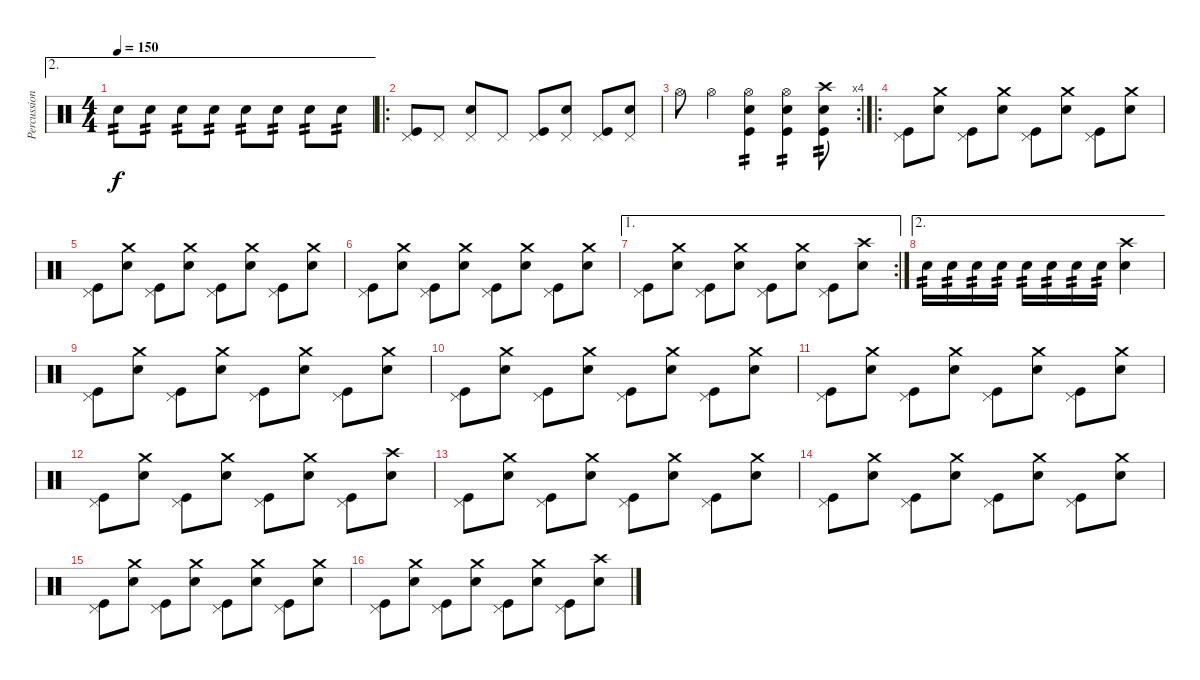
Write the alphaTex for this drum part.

\track ("Percussion" "Percussion") {instrument percussion}
\staff {score}
\articulation defaults
\ae 2
\ts (4 4)
\tempo 150
\clef neutral
\ks c "Snare (hit) 2".8{tp 2 dy f} "Snare (hit) 2".8{tp 2} "Snare (hit) 2".8{tp 2} "Snare (hit) 2".8{tp 2} "Snare (hit) 2".8{tp 2} "Snare (hit) 2".8{tp 2} "Snare (hit) 2".8{tp 2} "Snare (hit) 2".8{tp 2}
|
\ro
("Pedal Hi-Hat (hit)" "Kick (hit)").8 "Pedal Hi-Hat (hit)".8 ("Pedal Hi-Hat (hit)" "Snare (hit) 2").8 "Pedal Hi-Hat (hit)".8 ("Pedal Hi-Hat (hit)" "Kick (hit)").8 ("Pedal Hi-Hat (hit)" "Snare (hit) 2").8 ("Pedal Hi-Hat (hit)" "Kick (hit)").8 ("Pedal Hi-Hat (hit)" "Snare (hit) 2").8 |
\rc 4 "Hi-Hat (open)".8 "Hi-Hat (open)".4
("Hi-Hat (open)" "Snare (hit) 2" "Kick (hit)").4{tp 2} ("Hi-Hat (open)" "Snare (hit) 2" "Kick (hit)").4{tp 2} ("Crash high (hit)" "Snare (hit) 2" "Kick (hit)").8{tp 2} |
\ro
("Pedal Hi-Hat (hit)" "Kick (hit)").8 ("Crash medium (hit)" "Snare (hit) 2").8 ("Pedal Hi-Hat (hit)" "Kick (hit)").8 ("Crash medium (hit)" "Snare (hit) 2").8 ("Pedal Hi-Hat (hit)" "Kick (hit)").8 ("Crash medium (hit)" "Snare (hit) 2").8 ("Pedal Hi-Hat (hit)" "Kick (hit)").8 ("Crash medium (hit)" "Snare (hit) 2").8 |
("Pedal Hi-Hat (hit)" "Kick (hit)").8 ("Crash medium (hit)" "Snare (hit) 2").8 ("Pedal Hi-Hat (hit)" "Kick (hit)").8 ("Crash medium (hit)" "Snare (hit) 2").8 ("Pedal Hi-Hat (hit)" "Kick (hit)").8 ("Crash medium (hit)" "Snare (hit) 2").8 ("Pedal Hi-Hat (hit)" "Kick (hit)").8 ("Crash medium (hit)" "Snare (hit) 2").8 |
("Pedal Hi-Hat (hit)" "Kick (hit)").8 ("Crash medium (hit)" "Snare (hit) 2").8 ("Pedal Hi-Hat (hit)" "Kick (hit)").8 ("Crash medium (hit)" "Snare (hit) 2").8 ("Pedal Hi-Hat (hit)" "Kick (hit)").8 ("Crash medium (hit)" "Snare (hit) 2").8 ("Pedal Hi-Hat (hit)" "Kick (hit)").8 ("Crash medium (hit)" "Snare (hit) 2").8 |
\ae 1
\rc 2
("Pedal Hi-Hat (hit)" "Kick (hit)").8 ("Crash medium (hit)" "Snare (hit) 2").8 ("Pedal Hi-Hat (hit)" "Kick (hit)").8 ("Crash medium (hit)" "Snare (hit) 2").8 ("Pedal Hi-Hat (hit)" "Kick (hit)").8 ("Crash medium (hit)" "Snare (hit) 2").8 ("Pedal Hi-Hat (hit)" "Kick (hit)").8 ("Crash high (hit)" "Snare (hit) 2").8 |
\ae 2 "Snare (hit) 2".16{tp 2} "Snare (hit) 2".16{tp 2} "Snare (hit) 2".16{tp 2} "Snare (hit) 2".16{tp 2} "Snare (hit) 2".16{tp 2} "Snare (hit) 2".16{tp 2} "Snare (hit) 2".16{tp 2} "Snare (hit) 2".16{tp 2}
("Crash high (hit)" "Snare (hit) 2").4 |
("Pedal Hi-Hat (hit)" "Kick (hit)").8 ("Crash medium (hit)" "Snare (hit) 2").8 ("Pedal Hi-Hat (hit)" "Kick (hit)").8 ("Crash medium (hit)" "Snare (hit) 2").8 ("Pedal Hi-Hat (hit)" "Kick (hit)").8 ("Crash medium (hit)" "Snare (hit) 2").8 ("Pedal Hi-Hat (hit)" "Kick (hit)").8 ("Crash medium (hit)" "Snare (hit) 2").8 |
("Pedal Hi-Hat (hit)" "Kick (hit)").8 ("Crash medium (hit)" "Snare (hit) 2").8 ("Pedal Hi-Hat (hit)" "Kick (hit)").8 ("Crash medium (hit)" "Snare (hit) 2").8 ("Pedal Hi-Hat (hit)" "Kick (hit)").8 ("Crash medium (hit)" "Snare (hit) 2").8 ("Pedal Hi-Hat (hit)" "Kick (hit)").8 ("Crash medium (hit)" "Snare (hit) 2").8 |
("Pedal Hi-Hat (hit)" "Kick (hit)").8 ("Crash medium (hit)" "Snare (hit) 2").8 ("Pedal Hi-Hat (hit)" "Kick (hit)").8 ("Crash medium (hit)" "Snare (hit) 2").8 ("Pedal Hi-Hat (hit)" "Kick (hit)").8 ("Crash medium (hit)" "Snare (hit) 2").8 ("Pedal Hi-Hat (hit)" "Kick (hit)").8 ("Crash medium (hit)" "Snare (hit) 2").8 |
("Pedal Hi-Hat (hit)" "Kick (hit)").8 ("Crash medium (hit)" "Snare (hit) 2").8 ("Pedal Hi-Hat (hit)" "Kick (hit)").8 ("Crash medium (hit)" "Snare (hit) 2").8 ("Pedal Hi-Hat (hit)" "Kick (hit)").8 ("Crash medium (hit)" "Snare (hit) 2").8 ("Pedal Hi-Hat (hit)" "Kick (hit)").8 ("Crash high (hit)" "Snare (hit) 2").8 |
("Pedal Hi-Hat (hit)" "Kick (hit)").8 ("Crash medium (hit)" "Snare (hit) 2").8 ("Pedal Hi-Hat (hit)" "Kick (hit)").8 ("Crash medium (hit)" "Snare (hit) 2").8 ("Pedal Hi-Hat (hit)" "Kick (hit)").8 ("Crash medium (hit)" "Snare (hit) 2").8 ("Pedal Hi-Hat (hit)" "Kick (hit)").8 ("Crash medium (hit)" "Snare (hit) 2").8 |
("Pedal Hi-Hat (hit)" "Kick (hit)").8 ("Crash medium (hit)" "Snare (hit) 2").8 ("Pedal Hi-Hat (hit)" "Kick (hit)").8 ("Crash medium (hit)" "Snare (hit) 2").8 ("Pedal Hi-Hat (hit)" "Kick (hit)").8 ("Crash medium (hit)" "Snare (hit) 2").8 ("Pedal Hi-Hat (hit)" "Kick (hit)").8 ("Crash medium (hit)" "Snare (hit) 2").8 |
("Pedal Hi-Hat (hit)" "Kick (hit)").8 ("Crash medium (hit)" "Snare (hit) 2").8 ("Pedal Hi-Hat (hit)" "Kick (hit)").8 ("Crash medium (hit)" "Snare (hit) 2").8 ("Pedal Hi-Hat (hit)" "Kick (hit)").8 ("Crash medium (hit)" "Snare (hit) 2").8 ("Pedal Hi-Hat (hit)" "Kick (hit)").8 ("Crash medium (hit)" "Snare (hit) 2").8 |
("Pedal Hi-Hat (hit)" "Kick (hit)").8 ("Crash medium (hit)" "Snare (hit) 2").8 ("Pedal Hi-Hat (hit)" "Kick (hit)").8 ("Crash medium (hit)" "Snare (hit) 2").8 ("Pedal Hi-Hat (hit)" "Kick (hit)").8 ("Crash medium (hit)" "Snare (hit) 2").8 ("Pedal Hi-Hat (hit)" "Kick (hit)").8 ("Crash high (hit)" "Snare (hit) 2").8
